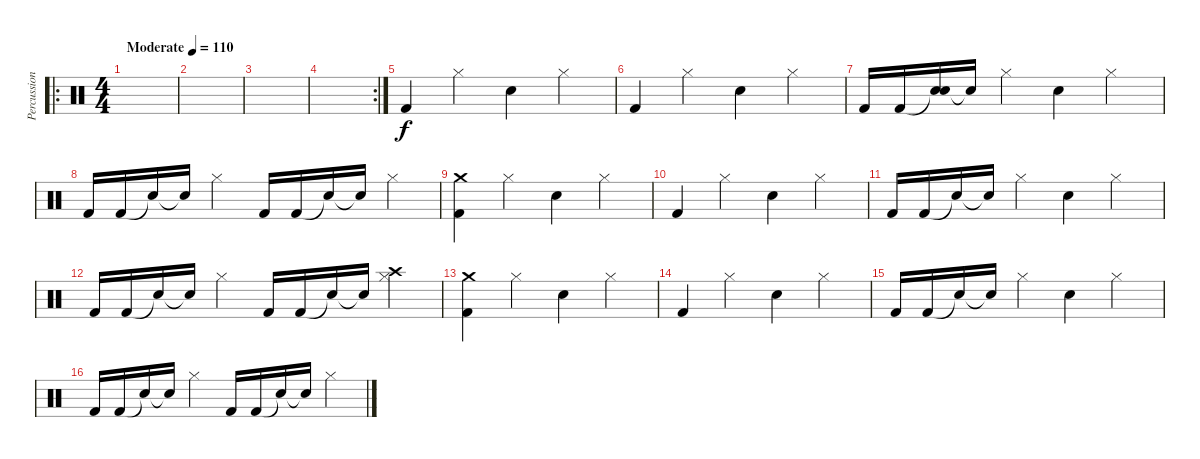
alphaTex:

\track ("Percussion" "Percussion") {instrument percussion}
\staff {score}
\articulation defaults
\ro
\ts (4 4)
\tempo (110 "Moderate")
\clef neutral
\ks c
|
|
|
\rc 2
|
"Kick (hit) 2".4 "Hi-Hat (closed)".4 "Electric Snare (hit)".4 "Hi-Hat (closed)".4 |
"Kick (hit) 2".4 "Hi-Hat (closed)".4 "Electric Snare (hit)".4 "Hi-Hat (closed)".4 |
"Kick (hit) 2".16 "Kick (hit) 2".16 ("Snare (hit)"{t} "Snare (hit)").16 "Snare (hit)"{t}.16 "Hi-Hat (closed)".4 "Electric Snare (hit)".4 "Hi-Hat (closed)".4 |
"Kick (hit) 2".16 "Kick (hit) 2".16 "Snare (hit)"{t}.16 "Snare (hit)"{t}.16 "Hi-Hat (closed)".4 "Kick (hit) 2".16 "Kick (hit) 2".16 "Snare (hit)"{t}.16 "Snare (hit)"{t}.16 "Hi-Hat (closed)".4 |
("Crash medium (hit)" "Kick (hit) 2").4 "Hi-Hat (closed)".4 "Electric Snare (hit)".4 "Hi-Hat (closed)".4 |
"Kick (hit) 2".4 "Hi-Hat (closed)".4 "Electric Snare (hit)".4 "Hi-Hat (closed)".4 |
"Kick (hit) 2".16 "Kick (hit) 2".16 "Snare (hit)"{t}.16 "Snare (hit)"{t}.16 "Hi-Hat (closed)".4 "Electric Snare (hit)".4 "Hi-Hat (closed)".4 |
"Kick (hit) 2".16 "Kick (hit) 2".16 "Snare (hit)"{t}.16 "Snare (hit)"{t}.16 "Hi-Hat (closed)".4 "Kick (hit) 2".16 "Kick (hit) 2".16 "Snare (hit)"{t}.16 "Snare (hit)"{t}.16 ("Crash high (hit)" "Hi-Hat (closed)").4 |
("Crash medium (hit)" "Kick (hit) 2").4 "Hi-Hat (closed)".4 "Electric Snare (hit)".4 "Hi-Hat (closed)".4 |
"Kick (hit) 2".4 "Hi-Hat (closed)".4 "Electric Snare (hit)".4 "Hi-Hat (closed)".4 |
"Kick (hit) 2".16 "Kick (hit) 2".16 "Snare (hit)"{t}.16 "Snare (hit)"{t}.16 "Hi-Hat (closed)".4 "Electric Snare (hit)".4 "Hi-Hat (closed)".4 |
"Kick (hit) 2".16 "Kick (hit) 2".16 "Snare (hit)"{t}.16 "Snare (hit)"{t}.16 "Hi-Hat (closed)".4 "Kick (hit) 2".16 "Kick (hit) 2".16 "Snare (hit)"{t}.16 "Snare (hit)"{t}.16 "Hi-Hat (closed)".4
